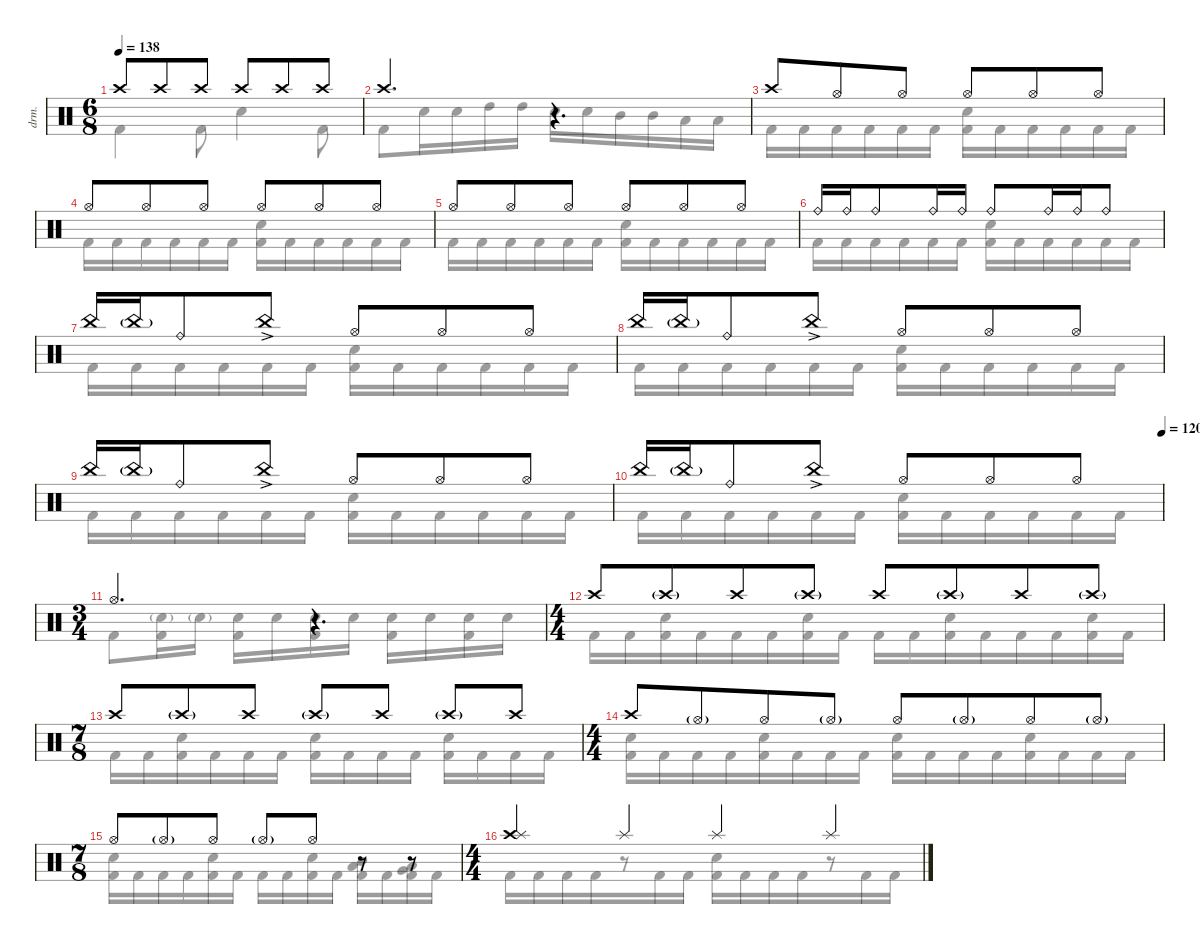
\defaultSystemsLayout 4
\hideDynamics
\bracketExtendMode nobrackets
\otherSystemsTrackNameOrientation horizontal
\track ("B. Richardson Drums" "drm.") {instrument percussion}
\staff {score}
\articulation defaults
\voice
\ts (6 8)
\tempo 138
\clef neutral
\ks c "Crash high (hit)".8{dy mf beam Up} "Crash high (hit)".8{beam Up} "Crash high (hit)".8{beam Up} "Crash high (hit)".8{beam Up} "Crash high (hit)".8{beam Up} "Crash high (hit)".8{beam Up}
|
"Crash high (hit)".4{d beam Up} r.4{d beam Up} |
"Crash high (hit)".8{dy f beam Up} "Hi-Hat (open)".8{dy mf beam Up} "Hi-Hat (open)".8{beam Up} "Hi-Hat (open)".8{beam Up} "Hi-Hat (open)".8{beam Up} "Hi-Hat (open)".8{beam Up} |
"Hi-Hat (open)".8{beam Up} "Hi-Hat (open)".8{beam Up} "Hi-Hat (open)".8{beam Up} "Hi-Hat (open)".8{beam Up} "Hi-Hat (open)".8{beam Up} "Hi-Hat (open)".8{beam Up} |
"Hi-Hat (open)".8{beam Up} "Hi-Hat (open)".8{beam Up} "Hi-Hat (open)".8{beam Up} "Hi-Hat (open)".8{beam Up} "Hi-Hat (open)".8{beam Up} "Hi-Hat (open)".8{beam Up} |
"Ride (bell)".16{beam Up} "Ride (bell)".16{beam Up} "Ride (bell)".8{dy f beam Up} "Ride (bell)".16{dy mf beam Up} "Ride (bell)".16{beam Up} "Ride (bell)".8{dy f beam Up} "Ride (bell)".16{dy mf beam Up} "Ride (bell)".16{beam Up} "Ride (bell)".8{dy f beam Up} |
"China (hit)".16{beam Up} "China (hit)"{g}.16{dy pp beam Up} "Ride (bell)".8{dy f beam Up} "China (hit)"{ac}.8{beam Up} "Hi-Hat (open)".8{dy mf beam Up} "Hi-Hat (open)".8{beam Up} "Hi-Hat (open)".8{beam Up} |
"China (hit)".16{dy f beam Up} "China (hit)"{g}.16{dy pp beam Up} "Ride (bell)".8{dy f beam Up} "China (hit)"{ac}.8{beam Up} "Hi-Hat (open)".8{dy mf beam Up} "Hi-Hat (open)".8{beam Up} "Hi-Hat (open)".8{beam Up} |
"China (hit)".16{dy f beam Up} "China (hit)"{g}.16{dy pp beam Up} "Ride (bell)".8{dy f beam Up} "China (hit)"{ac}.8{beam Up} "Hi-Hat (open)".8{dy mf beam Up} "Hi-Hat (open)".8{beam Up} "Hi-Hat (open)".8{beam Up} |
\tempo (120 1)
"China (hit)".16{dy f beam Up} "China (hit)"{g}.16{dy pp beam Up} "Ride (bell)".8{dy f beam Up} "China (hit)"{ac}.8{beam Up} "Hi-Hat (open)".8{dy mf beam Up} "Hi-Hat (open)".8{beam Up} "Hi-Hat (open)".8{beam Up} |
\ts (3 4)
\beaming (8 2 2 2)
"Hi-Hat (open)".4{d beam Up} r.4{d beam Up} |
\ts (4 4)
\beaming (8 4 4)
"Crash high (hit)".8{beam Up} "Crash high (hit)"{g}.8{beam Up} "Crash high (hit)".8{beam Up} "Crash high (hit)"{g}.8{beam Up} "Crash high (hit)".8{beam Up} "Crash high (hit)"{g}.8{beam Up} "Crash high (hit)".8{beam Up} "Crash high (hit)"{g}.8{beam Up} |
\ts (7 8)
\beaming (8 3 2 2)
"Crash high (hit)".8{beam Up} "Crash high (hit)"{g}.8{beam Up} "Crash high (hit)".8{beam Up} "Crash high (hit)"{g}.8{beam Up} "Crash high (hit)".8{beam Up} "Crash high (hit)"{g}.8{beam Up} "Crash high (hit)".8{beam Up} |
\ts (4 4)
\beaming (8 4 4)
"Crash high (hit)".8{beam Up} "Hi-Hat (open)"{g}.8{beam Up} "Hi-Hat (open)".8{beam Up} "Hi-Hat (open)"{g}.8{beam Up} "Hi-Hat (open)".8{beam Up} "Hi-Hat (open)"{g}.8{beam Up} "Hi-Hat (open)".8{beam Up} "Hi-Hat (open)"{g}.8{beam Up} |
\ts (7 8)
\beaming (8 3 2 2)
"Hi-Hat (open)".8{beam Up} "Hi-Hat (open)"{g}.8{beam Up} "Hi-Hat (open)".8{beam Up} "Hi-Hat (open)"{g}.8{beam Up} "Hi-Hat (open)".8{beam Up} r.8{beam Up} r.8{beam Up} |
\ts (4 4)
\beaming (8 4 4)
("Crash high (hit)" "Splash (hit)").4{beam Up} "Splash (hit)".4{dy f beam Up} "Splash (hit)".4{beam Up} "Splash (hit)".4{beam Up}
\voice
\clef neutral
\ottava regular
\simile none
\ks c "Kick (hit) 2".4{dy fff beam Down} "Kick (hit) 2".8{beam Down} "Snare (hit) 2".4{beam Down} "Kick (hit) 2".8{beam Down}
|
"Kick (hit) 2".8{beam Down} "Snare (hit) 2".16{beam Down} "Snare (hit) 2".16{beam Down} "High Tom (hit)".16{beam Down} "High Tom (hit)".16{beam Down} "Snare (hit) 2".16{beam Down} "Snare (hit) 2".16{beam Down} "Mid Tom (hit)".16{beam Down} "Mid Tom (hit)".16{beam Down} "Low Tom (hit)".16{beam Down} "Low Tom (hit)".16{beam Down} |
"Kick (hit) 2".16{beam Down} "Kick (hit) 2".16{beam Down} "Kick (hit) 2".16{beam Down} "Kick (hit) 2".16{beam Down} "Kick (hit) 2".16{beam Down} "Kick (hit) 2".16{beam Down} ("Snare (hit) 2" "Kick (hit) 2").16{beam Down} "Kick (hit) 2".16{beam Down} "Kick (hit) 2".16{beam Down} "Kick (hit) 2".16{beam Down} "Kick (hit) 2".16{beam Down} "Kick (hit) 2".16{beam Down} |
"Kick (hit) 2".16{beam Down} "Kick (hit) 2".16{beam Down} "Kick (hit) 2".16{beam Down} "Kick (hit) 2".16{beam Down} "Kick (hit) 2".16{beam Down} "Kick (hit) 2".16{beam Down} ("Snare (hit) 2" "Kick (hit) 2").16{beam Down} "Kick (hit) 2".16{beam Down} "Kick (hit) 2".16{beam Down} "Kick (hit) 2".16{beam Down} "Kick (hit) 2".16{beam Down} "Kick (hit) 2".16{beam Down} |
"Kick (hit) 2".16{beam Down} "Kick (hit) 2".16{beam Down} "Kick (hit) 2".16{beam Down} "Kick (hit) 2".16{beam Down} "Kick (hit) 2".16{beam Down} "Kick (hit) 2".16{beam Down} ("Snare (hit) 2" "Kick (hit) 2").16{beam Down} "Kick (hit) 2".16{beam Down} "Kick (hit) 2".16{beam Down} "Kick (hit) 2".16{beam Down} "Kick (hit) 2".16{beam Down} "Kick (hit) 2".16{beam Down} |
"Kick (hit) 2".16{beam Down} "Kick (hit) 2".16{beam Down} "Kick (hit) 2".16{beam Down} "Kick (hit) 2".16{beam Down} "Kick (hit) 2".16{beam Down} "Kick (hit) 2".16{beam Down} ("Snare (hit) 2" "Kick (hit) 2").16{beam Down} "Kick (hit) 2".16{beam Down} "Kick (hit) 2".16{beam Down} "Kick (hit) 2".16{beam Down} "Kick (hit) 2".16{beam Down} "Kick (hit) 2".16{beam Down} |
"Kick (hit) 2".16{beam Down} "Kick (hit) 2".16{beam Down} "Kick (hit) 2".16{beam Down} "Kick (hit) 2".16{beam Down} "Kick (hit) 2".16{beam Down} "Kick (hit) 2".16{beam Down} ("Snare (hit) 2" "Kick (hit) 2").16{beam Down} "Kick (hit) 2".16{beam Down} "Kick (hit) 2".16{beam Down} "Kick (hit) 2".16{beam Down} "Kick (hit) 2".16{beam Down} "Kick (hit) 2".16{beam Down} |
"Kick (hit) 2".16{beam Down} "Kick (hit) 2".16{beam Down} "Kick (hit) 2".16{beam Down} "Kick (hit) 2".16{beam Down} "Kick (hit) 2".16{beam Down} "Kick (hit) 2".16{beam Down} ("Snare (hit) 2" "Kick (hit) 2").16{beam Down} "Kick (hit) 2".16{beam Down} "Kick (hit) 2".16{beam Down} "Kick (hit) 2".16{beam Down} "Kick (hit) 2".16{beam Down} "Kick (hit) 2".16{beam Down} |
"Kick (hit) 2".16{beam Down} "Kick (hit) 2".16{beam Down} "Kick (hit) 2".16{beam Down} "Kick (hit) 2".16{beam Down} "Kick (hit) 2".16{beam Down} "Kick (hit) 2".16{beam Down} ("Snare (hit) 2" "Kick (hit) 2").16{beam Down} "Kick (hit) 2".16{beam Down} "Kick (hit) 2".16{beam Down} "Kick (hit) 2".16{beam Down} "Kick (hit) 2".16{beam Down} "Kick (hit) 2".16{beam Down} |
"Kick (hit) 2".16{beam Down} "Kick (hit) 2".16{beam Down} "Kick (hit) 2".16{beam Down} "Kick (hit) 2".16{beam Down} "Kick (hit) 2".16{beam Down} "Kick (hit) 2".16{beam Down} ("Snare (hit) 2" "Kick (hit) 2").16{beam Down} "Kick (hit) 2".16{beam Down} "Kick (hit) 2".16{beam Down} "Kick (hit) 2".16{beam Down} "Kick (hit) 2".16{beam Down} "Kick (hit) 2".16{beam Down} |
"Kick (hit) 2".8{beam Down} ("Snare (hit) 2"{g} "Kick (hit) 2").16{beam Down} "Snare (hit) 2"{g}.16{dy mf beam Down} ("Snare (hit) 2" "Kick (hit) 2").16{beam Down} "Snare (hit) 2".16{beam Down} ("Snare (hit) 2" "Kick (hit) 2").16{dy f beam Down} "Snare (hit) 2".16{beam Down} ("Snare (hit) 2" "Kick (hit) 2").16{dy ff beam Down} "Snare (hit) 2".16{beam Down} ("Snare (hit) 2" "Kick (hit) 2").16{dy fff beam Down} "Snare (hit) 2".16{beam Down} |
"Kick (hit) 2".16{beam Down} "Kick (hit) 2".16{beam Down} ("Snare (hit) 2" "Kick (hit) 2").16{beam Down} "Kick (hit) 2".16{beam Down} "Kick (hit) 2".16{beam Down} "Kick (hit) 2".16{beam Down} ("Snare (hit) 2" "Kick (hit) 2").16{beam Down} "Kick (hit) 2".16{beam Down} "Kick (hit) 2".16{beam Down} "Kick (hit) 2".16{beam Down} ("Snare (hit) 2" "Kick (hit) 2").16{beam Down} "Kick (hit) 2".16{beam Down} "Kick (hit) 2".16{beam Down} "Kick (hit) 2".16{beam Down} ("Snare (hit) 2" "Kick (hit) 2").16{beam Down} "Kick (hit) 2".16{beam Down} |
"Kick (hit) 2".16{beam Down} "Kick (hit) 2".16{beam Down} ("Snare (hit) 2" "Kick (hit) 2").16{beam Down} "Kick (hit) 2".16{beam Down} "Kick (hit) 2".16{beam Down} "Kick (hit) 2".16{beam Down} ("Snare (hit) 2" "Kick (hit) 2").16{beam Down} "Kick (hit) 2".16{beam Down} "Kick (hit) 2".16{beam Down} "Kick (hit) 2".16{beam Down} ("Snare (hit) 2" "Kick (hit) 2").16{beam Down} "Kick (hit) 2".16{beam Down} "Kick (hit) 2".16{beam Down} "Kick (hit) 2".16{beam Down} |
("Snare (hit) 2" "Kick (hit) 2").16{beam Down} "Kick (hit) 2".16{beam Down} "Kick (hit) 2".16{beam Down} "Kick (hit) 2".16{beam Down} ("Snare (hit) 2" "Kick (hit) 2").16{beam Down} "Kick (hit) 2".16{beam Down} "Kick (hit) 2".16{beam Down} "Kick (hit) 2".16{beam Down} ("Snare (hit) 2" "Kick (hit) 2").16{beam Down} "Kick (hit) 2".16{beam Down} "Kick (hit) 2".16{beam Down} "Kick (hit) 2".16{beam Down} ("Snare (hit) 2" "Kick (hit) 2").16{beam Down} "Kick (hit) 2".16{beam Down} "Kick (hit) 2".16{beam Down} "Kick (hit) 2".16{beam Down} |
("Snare (hit) 2" "Kick (hit) 2").16{beam Down} "Kick (hit) 2".16{beam Down} "Kick (hit) 2".16{beam Down} "Kick (hit) 2".16{beam Down} ("Snare (hit) 2" "Kick (hit) 2").16{beam Down} "Kick (hit) 2".16{beam Down} "Kick (hit) 2".16{beam Down} "Kick (hit) 2".16{beam Down} ("Snare (hit) 2" "Kick (hit) 2").16{beam Down} "Kick (hit) 2".16{beam Down} ("Mid Tom (hit)" "Low Tom (hit)" "Kick (hit) 2").16{beam Down} "Kick (hit) 2".16{beam Down} ("Low Tom (hit)" "Very Low Tom (hit)" "Kick (hit) 2").16{beam Down} "Kick (hit) 2".16{beam Down} |
"Kick (hit) 2".16{beam Down} "Kick (hit) 2".16{beam Down} "Kick (hit) 2".16{beam Down} "Kick (hit) 2".16{beam Down} r.8{beam Down} "Kick (hit) 2".16{beam Down} "Kick (hit) 2".16{beam Down} ("Snare (hit) 2" "Kick (hit) 2").16{beam Down} "Kick (hit) 2".16{beam Down} "Kick (hit) 2".16{beam Down} "Kick (hit) 2".16{beam Down} r.8{beam Down} "Kick (hit) 2".16{beam Down} "Kick (hit) 2".16{beam Down}
